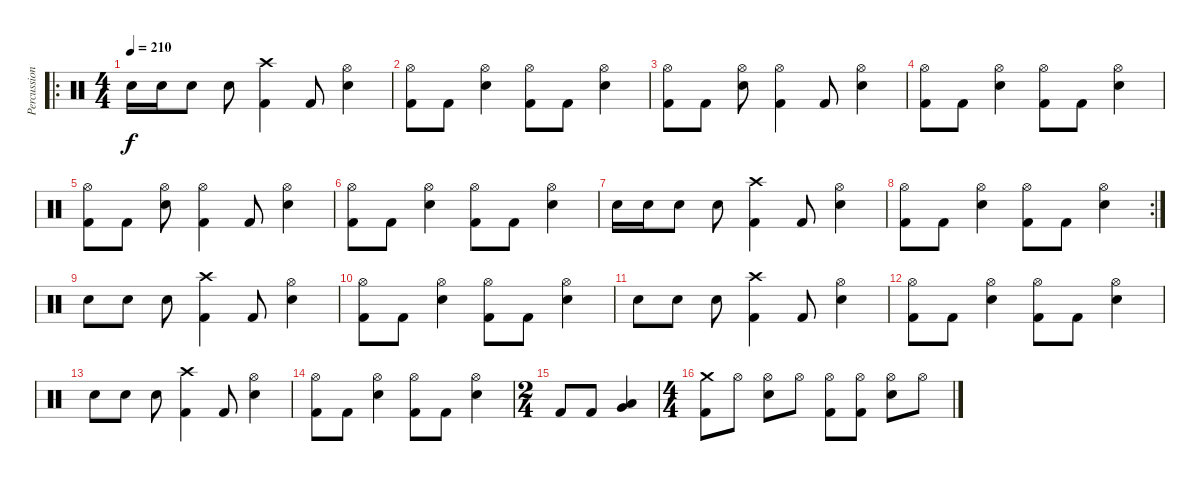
\track ("Percussion" "Percussion") {instrument percussion}
\staff {score}
\articulation defaults
\ro
\ts (4 4)
\tempo 210
\clef neutral
\ks c "Snare (hit) 2".16{dy f} "Snare (hit) 2".16 "Snare (hit) 2".8 "Snare (hit) 2".8
("Crash high (hit)" "Kick (hit) 2").4 "Kick (hit) 2".8 ("Hi-Hat (open)" "Snare (hit) 2").4 |
("Hi-Hat (open)" "Kick (hit) 2").8 "Kick (hit) 2".8 ("Hi-Hat (open)" "Snare (hit) 2").4 ("Hi-Hat (open)" "Kick (hit) 2").8 "Kick (hit) 2".8 ("Hi-Hat (open)" "Snare (hit) 2").4 |
("Hi-Hat (open)" "Kick (hit) 2").8 "Kick (hit) 2".8 ("Hi-Hat (open)" "Snare (hit) 2").8 ("Hi-Hat (open)" "Kick (hit) 2").4 "Kick (hit) 2".8 ("Hi-Hat (open)" "Snare (hit) 2").4 |
("Hi-Hat (open)" "Kick (hit) 2").8 "Kick (hit) 2".8 ("Hi-Hat (open)" "Snare (hit) 2").4 ("Hi-Hat (open)" "Kick (hit) 2").8 "Kick (hit) 2".8 ("Hi-Hat (open)" "Snare (hit) 2").4 |
("Hi-Hat (open)" "Kick (hit) 2").8 "Kick (hit) 2".8 ("Hi-Hat (open)" "Snare (hit) 2").8 ("Hi-Hat (open)" "Kick (hit) 2").4 "Kick (hit) 2".8 ("Hi-Hat (open)" "Snare (hit) 2").4 |
("Hi-Hat (open)" "Kick (hit) 2").8 "Kick (hit) 2".8 ("Hi-Hat (open)" "Snare (hit) 2").4 ("Hi-Hat (open)" "Kick (hit) 2").8 "Kick (hit) 2".8 ("Hi-Hat (open)" "Snare (hit) 2").4 |
"Snare (hit) 2".16 "Snare (hit) 2".16 "Snare (hit) 2".8 "Snare (hit) 2".8 ("Crash high (hit)" "Kick (hit) 2").4 "Kick (hit) 2".8 ("Hi-Hat (open)" "Snare (hit) 2").4 |
\rc 2
("Hi-Hat (open)" "Kick (hit) 2").8 "Kick (hit) 2".8 ("Hi-Hat (open)" "Snare (hit) 2").4 ("Hi-Hat (open)" "Kick (hit) 2").8 "Kick (hit) 2".8 ("Hi-Hat (open)" "Snare (hit) 2").4 |
"Snare (hit) 2".8 "Snare (hit) 2".8 "Snare (hit) 2".8 ("Crash high (hit)" "Kick (hit) 2").4 "Kick (hit) 2".8 ("Hi-Hat (open)" "Snare (hit) 2").4 |
("Hi-Hat (open)" "Kick (hit) 2").8 "Kick (hit) 2".8 ("Hi-Hat (open)" "Snare (hit) 2").4 ("Hi-Hat (open)" "Kick (hit) 2").8 "Kick (hit) 2".8 ("Hi-Hat (open)" "Snare (hit) 2").4 |
"Snare (hit) 2".8 "Snare (hit) 2".8 "Snare (hit) 2".8 ("Crash high (hit)" "Kick (hit) 2").4 "Kick (hit) 2".8 ("Hi-Hat (open)" "Snare (hit) 2").4 |
("Hi-Hat (open)" "Kick (hit) 2").8 "Kick (hit) 2".8 ("Hi-Hat (open)" "Snare (hit) 2").4 ("Hi-Hat (open)" "Kick (hit) 2").8 "Kick (hit) 2".8 ("Hi-Hat (open)" "Snare (hit) 2").4 |
"Snare (hit) 2".8 "Snare (hit) 2".8 "Snare (hit) 2".8 ("Crash high (hit)" "Kick (hit) 2").4 "Kick (hit) 2".8 ("Hi-Hat (open)" "Snare (hit) 2").4 |
("Hi-Hat (open)" "Kick (hit) 2").8 "Kick (hit) 2".8 ("Hi-Hat (open)" "Snare (hit) 2").4 ("Hi-Hat (open)" "Kick (hit) 2").8 "Kick (hit) 2".8 ("Hi-Hat (open)" "Snare (hit) 2").4 |
\ts (2 4)
"Kick (hit) 2".8 "Kick (hit) 2".8 ("Very Low Tom (hit)" "Low Floor Tom (hit)").4 |
\ts (4 4)
("Crash medium (hit)" "Kick (hit) 2").8 "Hi-Hat (open)".8 ("Hi-Hat (open)" "Snare (hit) 2").8 "Hi-Hat (open)".8 ("Hi-Hat (open)" "Kick (hit) 2").8 ("Hi-Hat (open)" "Kick (hit) 2").8 ("Hi-Hat (open)" "Snare (hit) 2").8 "Hi-Hat (open)".8
